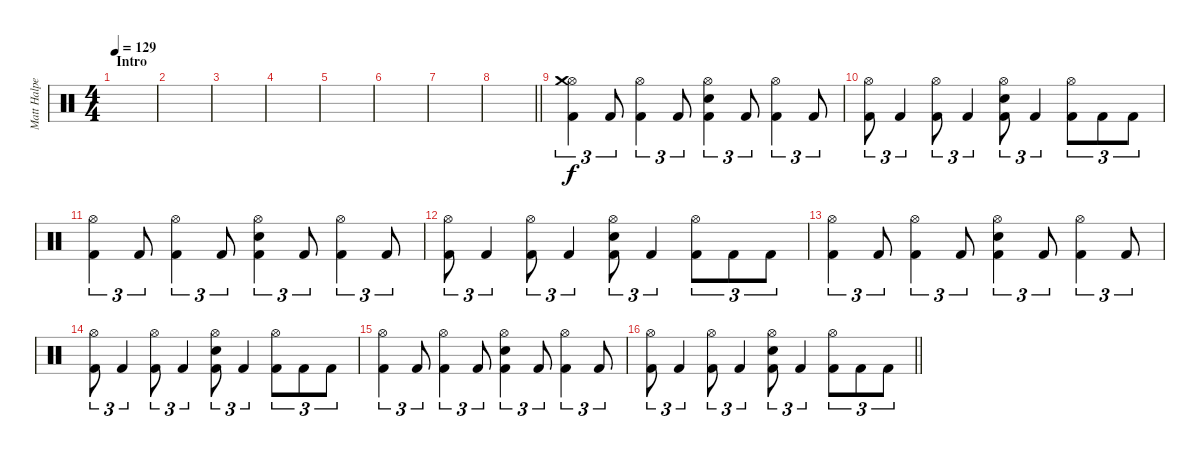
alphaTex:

\track ("Matt Halpern - Drums" "Matt Halpe") {instrument percussion}
\staff {score}
\articulation defaults
\ts (4 4)
\section ("" "Intro")
\tempo 129
\clef neutral
\ks c
|
|
|
|
|
|
|
\barLineRight lightlight
|
\section ("" "")
("Hi-Hat (open)" "Crash medium (hit)" "Kick (hit) 2").4{tu (3 2)} "Kick (hit) 2".8{tu (3 2)} ("Hi-Hat (open)" "Kick (hit) 2").4{tu (3 2)} "Kick (hit) 2".8{tu (3 2)} ("Hi-Hat (open)" "Electric Snare (hit)" "Kick (hit) 2").4{tu (3 2)} "Kick (hit) 2".8{tu (3 2)} ("Hi-Hat (open)" "Kick (hit) 2").4{tu (3 2)} "Kick (hit) 2".8{tu (3 2)} |
("Hi-Hat (open)" "Kick (hit) 2").8{tu (3 2)} "Kick (hit) 2".4{tu (3 2)} ("Hi-Hat (open)" "Kick (hit) 2").8{tu (3 2)} "Kick (hit) 2".4{tu (3 2)} ("Hi-Hat (open)" "Electric Snare (hit)" "Kick (hit) 2").8{tu (3 2)} "Kick (hit) 2".4{tu (3 2)} ("Hi-Hat (open)" "Kick (hit) 2").8{tu (3 2)} "Kick (hit) 2".8{tu (3 2)} "Kick (hit) 2".8{tu (3 2)} |
("Hi-Hat (open)" "Kick (hit) 2").4{tu (3 2)} "Kick (hit) 2".8{tu (3 2)} ("Hi-Hat (open)" "Kick (hit) 2").4{tu (3 2)} "Kick (hit) 2".8{tu (3 2)} ("Hi-Hat (open)" "Electric Snare (hit)" "Kick (hit) 2").4{tu (3 2)} "Kick (hit) 2".8{tu (3 2)} ("Hi-Hat (open)" "Kick (hit) 2").4{tu (3 2)} "Kick (hit) 2".8{tu (3 2)} |
("Hi-Hat (open)" "Kick (hit) 2").8{tu (3 2)} "Kick (hit) 2".4{tu (3 2)} ("Hi-Hat (open)" "Kick (hit) 2").8{tu (3 2)} "Kick (hit) 2".4{tu (3 2)} ("Hi-Hat (open)" "Electric Snare (hit)" "Kick (hit) 2").8{tu (3 2)} "Kick (hit) 2".4{tu (3 2)} ("Hi-Hat (open)" "Kick (hit) 2").8{tu (3 2)} "Kick (hit) 2".8{tu (3 2)} "Kick (hit) 2".8{tu (3 2)} |
("Hi-Hat (open)" "Kick (hit) 2").4{tu (3 2)} "Kick (hit) 2".8{tu (3 2)} ("Hi-Hat (open)" "Kick (hit) 2").4{tu (3 2)} "Kick (hit) 2".8{tu (3 2)} ("Hi-Hat (open)" "Electric Snare (hit)" "Kick (hit) 2").4{tu (3 2)} "Kick (hit) 2".8{tu (3 2)} ("Hi-Hat (open)" "Kick (hit) 2").4{tu (3 2)} "Kick (hit) 2".8{tu (3 2)} |
("Hi-Hat (open)" "Kick (hit) 2").8{tu (3 2)} "Kick (hit) 2".4{tu (3 2)} ("Hi-Hat (open)" "Kick (hit) 2").8{tu (3 2)} "Kick (hit) 2".4{tu (3 2)} ("Hi-Hat (open)" "Electric Snare (hit)" "Kick (hit) 2").8{tu (3 2)} "Kick (hit) 2".4{tu (3 2)} ("Hi-Hat (open)" "Kick (hit) 2").8{tu (3 2)} "Kick (hit) 2".8{tu (3 2)} "Kick (hit) 2".8{tu (3 2)} |
("Hi-Hat (open)" "Kick (hit) 2").4{tu (3 2)} "Kick (hit) 2".8{tu (3 2)} ("Hi-Hat (open)" "Kick (hit) 2").4{tu (3 2)} "Kick (hit) 2".8{tu (3 2)} ("Hi-Hat (open)" "Electric Snare (hit)" "Kick (hit) 2").4{tu (3 2)} "Kick (hit) 2".8{tu (3 2)} ("Hi-Hat (open)" "Kick (hit) 2").4{tu (3 2)} "Kick (hit) 2".8{tu (3 2)} |
\barLineRight lightlight
("Hi-Hat (open)" "Kick (hit) 2").8{tu (3 2)} "Kick (hit) 2".4{tu (3 2)} ("Hi-Hat (open)" "Kick (hit) 2").8{tu (3 2)} "Kick (hit) 2".4{tu (3 2)} ("Hi-Hat (open)" "Electric Snare (hit)" "Kick (hit) 2").8{tu (3 2)} "Kick (hit) 2".4{tu (3 2)} ("Hi-Hat (open)" "Kick (hit) 2").8{tu (3 2)} "Kick (hit) 2".8{tu (3 2)} "Kick (hit) 2".8{tu (3 2)}
